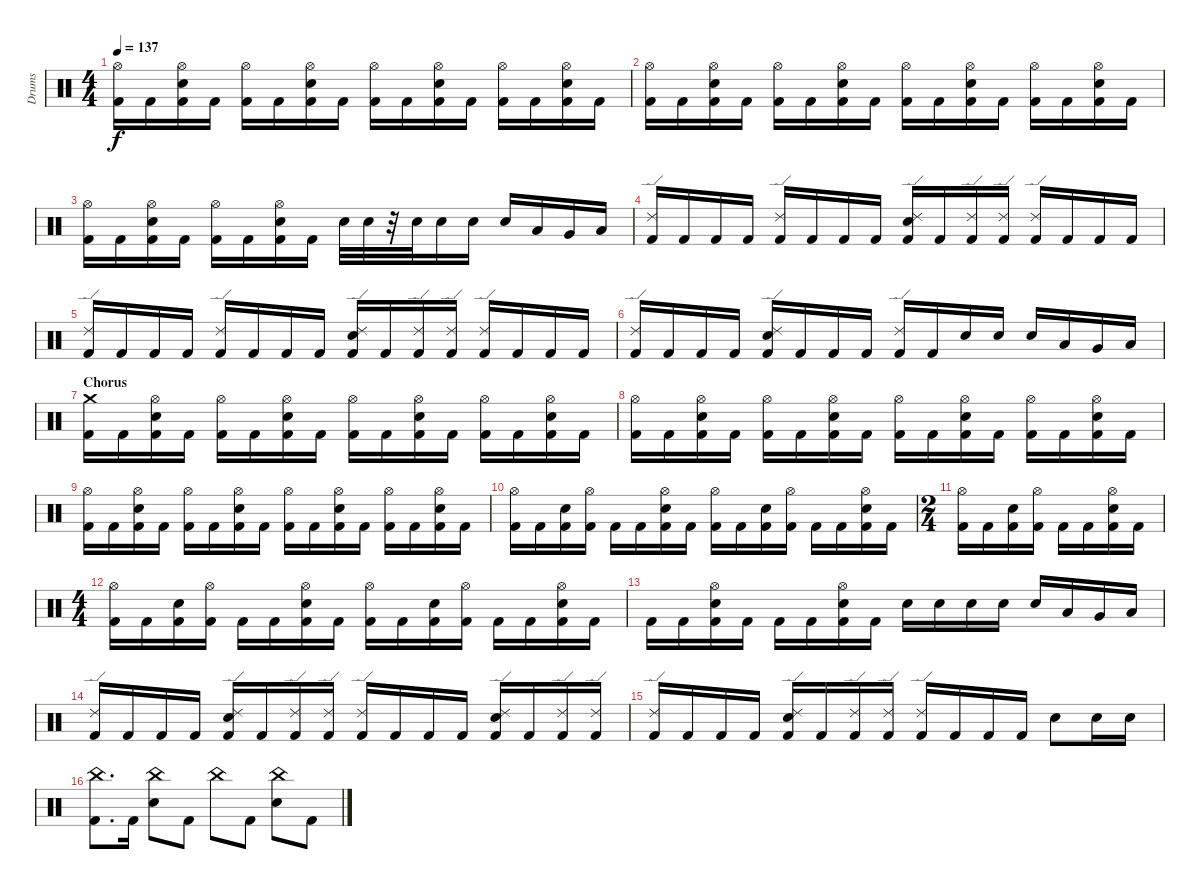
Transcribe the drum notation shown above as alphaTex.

\track ("Drums" "Drums") {instrument percussion}
\staff {score}
\articulation defaults
\ts (4 4)
\tempo 137
\clef neutral
\ks c
("Hi-Hat (open)" "Kick (hit) 2").16{dy f} "Kick (hit) 2".16 ("Hi-Hat (open)" "Electric Snare (hit)" "Kick (hit) 2").16 "Kick (hit) 2".16 ("Hi-Hat (open)" "Kick (hit) 2").16 "Kick (hit) 2".16 ("Hi-Hat (open)" "Electric Snare (hit)" "Kick (hit) 2").16 "Kick (hit) 2".16 ("Hi-Hat (open)" "Kick (hit) 2").16 "Kick (hit) 2".16 ("Hi-Hat (open)" "Electric Snare (hit)" "Kick (hit) 2").16 "Kick (hit) 2".16 ("Hi-Hat (open)" "Kick (hit) 2").16 "Kick (hit) 2".16 ("Hi-Hat (open)" "Electric Snare (hit)" "Kick (hit) 2").16 "Kick (hit) 2".16 |
("Hi-Hat (open)" "Kick (hit) 2").16 "Kick (hit) 2".16 ("Hi-Hat (open)" "Electric Snare (hit)" "Kick (hit) 2").16 "Kick (hit) 2".16 ("Hi-Hat (open)" "Kick (hit) 2").16 "Kick (hit) 2".16 ("Hi-Hat (open)" "Electric Snare (hit)" "Kick (hit) 2").16 "Kick (hit) 2".16 ("Hi-Hat (open)" "Kick (hit) 2").16 "Kick (hit) 2".16 ("Hi-Hat (open)" "Electric Snare (hit)" "Kick (hit) 2").16 "Kick (hit) 2".16 ("Hi-Hat (open)" "Kick (hit) 2").16 "Kick (hit) 2".16 ("Hi-Hat (open)" "Electric Snare (hit)" "Kick (hit) 2").16 "Kick (hit) 2".16 |
("Hi-Hat (open)" "Kick (hit) 2").16 "Kick (hit) 2".16 ("Hi-Hat (open)" "Electric Snare (hit)" "Kick (hit) 2").16 "Kick (hit) 2".16 ("Hi-Hat (open)" "Kick (hit) 2").16 "Kick (hit) 2".16 ("Hi-Hat (open)" "Electric Snare (hit)" "Kick (hit) 2").16 "Kick (hit) 2".16 "Electric Snare (hit)".32 "Electric Snare (hit)".32 r.32 "Electric Snare (hit)".32 "Electric Snare (hit)".16 "Electric Snare (hit)".16 "Electric Snare (hit)".16 "Low Tom (hit)".16 "Very Low Tom (hit)".16 "Low Floor Tom (hit)".16 |
("Kick (hit) 2" "Ride (edge) 2").16 "Kick (hit) 2".16 "Kick (hit) 2".16 "Kick (hit) 2".16 ("Kick (hit) 2" "Ride (edge) 2").16 "Kick (hit) 2".16 "Kick (hit) 2".16 "Kick (hit) 2".16 ("Electric Snare (hit)" "Kick (hit) 2" "Ride (edge) 2").16 "Kick (hit) 2".16 ("Kick (hit) 2" "Ride (edge) 2").16 ("Kick (hit) 2" "Ride (edge) 2").16 ("Kick (hit) 2" "Ride (edge) 2").16 "Kick (hit) 2".16 "Kick (hit) 2".16 "Kick (hit) 2".16 |
("Kick (hit) 2" "Ride (edge) 2").16 "Kick (hit) 2".16 "Kick (hit) 2".16 "Kick (hit) 2".16 ("Kick (hit) 2" "Ride (edge) 2").16 "Kick (hit) 2".16 "Kick (hit) 2".16 "Kick (hit) 2".16 ("Electric Snare (hit)" "Kick (hit) 2" "Ride (edge) 2").16 "Kick (hit) 2".16 ("Kick (hit) 2" "Ride (edge) 2").16 ("Kick (hit) 2" "Ride (edge) 2").16 ("Kick (hit) 2" "Ride (edge) 2").16 "Kick (hit) 2".16 "Kick (hit) 2".16 "Kick (hit) 2".16 |
("Kick (hit) 2" "Ride (edge) 2").16 "Kick (hit) 2".16 "Kick (hit) 2".16 "Kick (hit) 2".16 ("Electric Snare (hit)" "Kick (hit) 2" "Ride (edge) 2").16 "Kick (hit) 2".16 "Kick (hit) 2".16 "Kick (hit) 2".16 ("Ride (edge) 2" "Kick (hit) 2").16 "Kick (hit) 2".16 "Electric Snare (hit)".16 "Electric Snare (hit)".16 "Electric Snare (hit)".16 "Low Tom (hit)".16 "Very Low Tom (hit)".16 "Low Floor Tom (hit)".16 |
\section ("" "Chorus")
("Crash medium (hit)" "Kick (hit) 2").16 "Kick (hit) 2".16 ("Hi-Hat (open)" "Electric Snare (hit)" "Kick (hit) 2").16 "Kick (hit) 2".16 ("Hi-Hat (open)" "Kick (hit) 2").16 "Kick (hit) 2".16 ("Hi-Hat (open)" "Electric Snare (hit)" "Kick (hit) 2").16 "Kick (hit) 2".16 ("Hi-Hat (open)" "Kick (hit) 2").16 "Kick (hit) 2".16 ("Hi-Hat (open)" "Electric Snare (hit)" "Kick (hit) 2").16 "Kick (hit) 2".16 ("Hi-Hat (open)" "Kick (hit) 2").16 "Kick (hit) 2".16 ("Hi-Hat (open)" "Electric Snare (hit)" "Kick (hit) 2").16 "Kick (hit) 2".16 |
("Hi-Hat (open)" "Kick (hit) 2").16 "Kick (hit) 2".16 ("Hi-Hat (open)" "Electric Snare (hit)" "Kick (hit) 2").16 "Kick (hit) 2".16 ("Hi-Hat (open)" "Kick (hit) 2").16 "Kick (hit) 2".16 ("Hi-Hat (open)" "Electric Snare (hit)" "Kick (hit) 2").16 "Kick (hit) 2".16 ("Hi-Hat (open)" "Kick (hit) 2").16 "Kick (hit) 2".16 ("Hi-Hat (open)" "Electric Snare (hit)" "Kick (hit) 2").16 "Kick (hit) 2".16 ("Hi-Hat (open)" "Kick (hit) 2").16 "Kick (hit) 2".16 ("Hi-Hat (open)" "Electric Snare (hit)" "Kick (hit) 2").16 "Kick (hit) 2".16 |
("Hi-Hat (open)" "Kick (hit) 2").16 "Kick (hit) 2".16 ("Hi-Hat (open)" "Electric Snare (hit)" "Kick (hit) 2").16 "Kick (hit) 2".16 ("Hi-Hat (open)" "Kick (hit) 2").16 "Kick (hit) 2".16 ("Hi-Hat (open)" "Electric Snare (hit)" "Kick (hit) 2").16 "Kick (hit) 2".16 ("Hi-Hat (open)" "Kick (hit) 2").16 "Kick (hit) 2".16 ("Hi-Hat (open)" "Electric Snare (hit)" "Kick (hit) 2").16 "Kick (hit) 2".16 ("Hi-Hat (open)" "Kick (hit) 2").16 "Kick (hit) 2".16 ("Hi-Hat (open)" "Electric Snare (hit)" "Kick (hit) 2").16 "Kick (hit) 2".16 |
("Hi-Hat (open)" "Kick (hit) 2").16 "Kick (hit) 2".16 ("Electric Snare (hit)" "Kick (hit) 2").16 ("Hi-Hat (open)" "Kick (hit) 2").16 "Kick (hit) 2".16 "Kick (hit) 2".16 ("Hi-Hat (open)" "Electric Snare (hit)" "Kick (hit) 2").16 "Kick (hit) 2".16 ("Hi-Hat (open)" "Kick (hit) 2").16 "Kick (hit) 2".16 ("Electric Snare (hit)" "Kick (hit) 2").16 ("Hi-Hat (open)" "Kick (hit) 2").16 "Kick (hit) 2".16 "Kick (hit) 2".16 ("Hi-Hat (open)" "Electric Snare (hit)" "Kick (hit) 2").16 "Kick (hit) 2".16 |
\ts (2 4)
("Hi-Hat (open)" "Kick (hit) 2").16 "Kick (hit) 2".16 ("Electric Snare (hit)" "Kick (hit) 2").16 ("Hi-Hat (open)" "Kick (hit) 2").16 "Kick (hit) 2".16 "Kick (hit) 2".16 ("Hi-Hat (open)" "Electric Snare (hit)" "Kick (hit) 2").16 "Kick (hit) 2".16 |
\ts (4 4)
("Hi-Hat (open)" "Kick (hit) 2").16 "Kick (hit) 2".16 ("Electric Snare (hit)" "Kick (hit) 2").16 ("Hi-Hat (open)" "Kick (hit) 2").16 "Kick (hit) 2".16 "Kick (hit) 2".16 ("Hi-Hat (open)" "Electric Snare (hit)" "Kick (hit) 2").16 "Kick (hit) 2".16 ("Hi-Hat (open)" "Kick (hit) 2").16 "Kick (hit) 2".16 ("Electric Snare (hit)" "Kick (hit) 2").16 ("Hi-Hat (open)" "Kick (hit) 2").16 "Kick (hit) 2".16 "Kick (hit) 2".16 ("Hi-Hat (open)" "Electric Snare (hit)" "Kick (hit) 2").16 "Kick (hit) 2".16 |
"Kick (hit) 2".16 "Kick (hit) 2".16 ("Hi-Hat (open)" "Electric Snare (hit)" "Kick (hit) 2").16 "Kick (hit) 2".16 "Kick (hit) 2".16 "Kick (hit) 2".16 ("Hi-Hat (open)" "Electric Snare (hit)" "Kick (hit) 2").16 "Kick (hit) 2".16 "Electric Snare (hit)".16 "Electric Snare (hit)".16 "Electric Snare (hit)".16 "Electric Snare (hit)".16 "Electric Snare (hit)".16 "Low Tom (hit)".16 "Very Low Tom (hit)".16 "Low Floor Tom (hit)".16 |
("Kick (hit) 2" "Ride (edge) 2").16 "Kick (hit) 2".16 "Kick (hit) 2".16 "Kick (hit) 2".16 ("Electric Snare (hit)" "Kick (hit) 2" "Ride (edge) 2").16 "Kick (hit) 2".16 ("Kick (hit) 2" "Ride (edge) 2").16 ("Kick (hit) 2" "Ride (edge) 2").16 ("Kick (hit) 2" "Ride (edge) 2").16 "Kick (hit) 2".16 "Kick (hit) 2".16 "Kick (hit) 2".16 ("Electric Snare (hit)" "Kick (hit) 2" "Ride (edge) 2").16 "Kick (hit) 2".16 ("Kick (hit) 2" "Ride (edge) 2").16 ("Kick (hit) 2" "Ride (edge) 2").16 |
("Kick (hit) 2" "Ride (edge) 2").16 "Kick (hit) 2".16 "Kick (hit) 2".16 "Kick (hit) 2".16 ("Electric Snare (hit)" "Kick (hit) 2" "Ride (edge) 2").16 "Kick (hit) 2".16 ("Kick (hit) 2" "Ride (edge) 2").16 ("Kick (hit) 2" "Ride (edge) 2").16 ("Kick (hit) 2" "Ride (edge) 2").16 "Kick (hit) 2".16 "Kick (hit) 2".16 "Kick (hit) 2".16 "Electric Snare (hit)".8 "Electric Snare (hit)".16 "Electric Snare (hit)".16 |
("China (hit)" "Kick (hit) 2").8{d} "Kick (hit) 2".16 ("China (hit)" "Electric Snare (hit)").8 "Kick (hit) 2".8 "China (hit)".8 "Kick (hit) 2".8 ("China (hit)" "Electric Snare (hit)").8 "Kick (hit) 2".8
